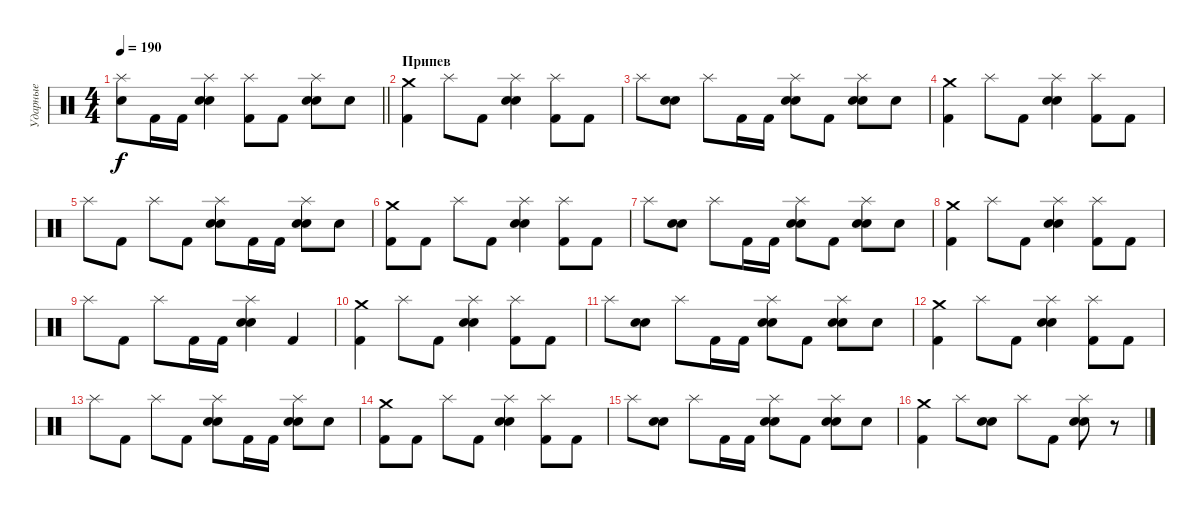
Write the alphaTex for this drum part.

\track ("Ударные" "Ударные") {instrument percussion}
\staff {score}
\articulation defaults
\ts (4 4)
\tempo 190
\clef neutral
\barLineRight lightlight
\ks c
("Splash (hit)" "Snare (hit)"{t}).8{dy f} "Kick (hit) 2".16 "Kick (hit) 2".16 ("Splash (hit)" "Electric Snare (hit)" "Snare (hit) 2").4 ("Splash (hit)" "Kick (hit) 2").8 "Kick (hit) 2".8 ("Splash (hit)" "Electric Snare (hit)" "Snare (hit) 2").8 "Electric Snare (hit)".8 |
\section ("" "Припев")
("Crash medium (hit)" "Kick (hit) 2").4 "Splash (hit)".8 "Kick (hit) 2".8 ("Splash (hit)" "Electric Snare (hit)" "Snare (hit) 2").4 ("Splash (hit)" "Kick (hit) 2").8 "Kick (hit) 2".8 |
"Splash (hit)".8 ("Electric Snare (hit)" "Snare (hit) 2").8 "Splash (hit)".8 "Kick (hit) 2".16 "Kick (hit) 2".16 ("Splash (hit)" "Electric Snare (hit)" "Snare (hit) 2").8 "Kick (hit) 2".8 ("Splash (hit)" "Electric Snare (hit)" "Snare (hit) 2").8 "Electric Snare (hit)".8 |
("Crash medium (hit)" "Kick (hit) 2").4 "Splash (hit)".8 "Kick (hit) 2".8 ("Splash (hit)" "Electric Snare (hit)" "Snare (hit) 2").4 ("Splash (hit)" "Kick (hit) 2").8 "Kick (hit) 2".8 |
"Splash (hit)".8 "Kick (hit) 2".8 "Splash (hit)".8 "Kick (hit) 2".8 ("Splash (hit)" "Electric Snare (hit)" "Snare (hit) 2").8 "Kick (hit) 2".16 "Kick (hit) 2".16 ("Splash (hit)" "Electric Snare (hit)" "Snare (hit) 2").8 "Electric Snare (hit)".8 |
("Crash medium (hit)" "Kick (hit) 2").8 "Kick (hit) 2".8 "Splash (hit)".8 "Kick (hit) 2".8 ("Splash (hit)" "Electric Snare (hit)" "Snare (hit) 2").4 ("Splash (hit)" "Kick (hit) 2").8 "Kick (hit) 2".8 |
"Splash (hit)".8 ("Electric Snare (hit)" "Snare (hit) 2").8 "Splash (hit)".8 "Kick (hit) 2".16 "Kick (hit) 2".16 ("Splash (hit)" "Electric Snare (hit)" "Snare (hit) 2").8 "Kick (hit) 2".8 ("Splash (hit)" "Electric Snare (hit)" "Snare (hit) 2").8 "Electric Snare (hit)".8 |
("Crash medium (hit)" "Kick (hit) 2").4 "Splash (hit)".8 "Kick (hit) 2".8 ("Splash (hit)" "Electric Snare (hit)" "Snare (hit) 2").4 ("Splash (hit)" "Kick (hit) 2").8 "Kick (hit) 2".8 |
"Splash (hit)".8 "Kick (hit) 2".8 "Splash (hit)".8 "Kick (hit) 2".16 "Kick (hit) 2".16 ("Splash (hit)" "Electric Snare (hit)" "Snare (hit) 2").4 "Kick (hit) 2".4 |
("Crash medium (hit)" "Kick (hit) 2").4 "Splash (hit)".8 "Kick (hit) 2".8 ("Splash (hit)" "Electric Snare (hit)" "Snare (hit) 2").4 ("Splash (hit)" "Kick (hit) 2").8 "Kick (hit) 2".8 |
"Splash (hit)".8 ("Electric Snare (hit)" "Snare (hit) 2").8 "Splash (hit)".8 "Kick (hit) 2".16 "Kick (hit) 2".16 ("Splash (hit)" "Electric Snare (hit)" "Snare (hit) 2").8 "Kick (hit) 2".8 ("Splash (hit)" "Electric Snare (hit)" "Snare (hit) 2").8 "Electric Snare (hit)".8 |
("Crash medium (hit)" "Kick (hit) 2").4 "Splash (hit)".8 "Kick (hit) 2".8 ("Splash (hit)" "Electric Snare (hit)" "Snare (hit) 2").4 ("Splash (hit)" "Kick (hit) 2").8 "Kick (hit) 2".8 |
"Splash (hit)".8 "Kick (hit) 2".8 "Splash (hit)".8 "Kick (hit) 2".8 ("Splash (hit)" "Electric Snare (hit)" "Snare (hit) 2").8 "Kick (hit) 2".16 "Kick (hit) 2".16 ("Splash (hit)" "Electric Snare (hit)" "Snare (hit) 2").8 "Electric Snare (hit)".8 |
("Crash medium (hit)" "Kick (hit) 2").8 "Kick (hit) 2".8 "Splash (hit)".8 "Kick (hit) 2".8 ("Splash (hit)" "Electric Snare (hit)" "Snare (hit) 2").4 ("Splash (hit)" "Kick (hit) 2").8 "Kick (hit) 2".8 |
"Splash (hit)".8 ("Electric Snare (hit)" "Snare (hit) 2").8 "Splash (hit)".8 "Kick (hit) 2".16 "Kick (hit) 2".16 ("Splash (hit)" "Electric Snare (hit)" "Snare (hit) 2").8 "Kick (hit) 2".8 ("Splash (hit)" "Electric Snare (hit)" "Snare (hit) 2").8 "Electric Snare (hit)".8 |
("Crash medium (hit)" "Kick (hit) 2").4 "Splash (hit)".8 ("Electric Snare (hit)" "Snare (hit) 2").8 "Splash (hit)".8 "Kick (hit) 2".8 ("Splash (hit)" "Electric Snare (hit)" "Snare (hit) 2").8 r.8
